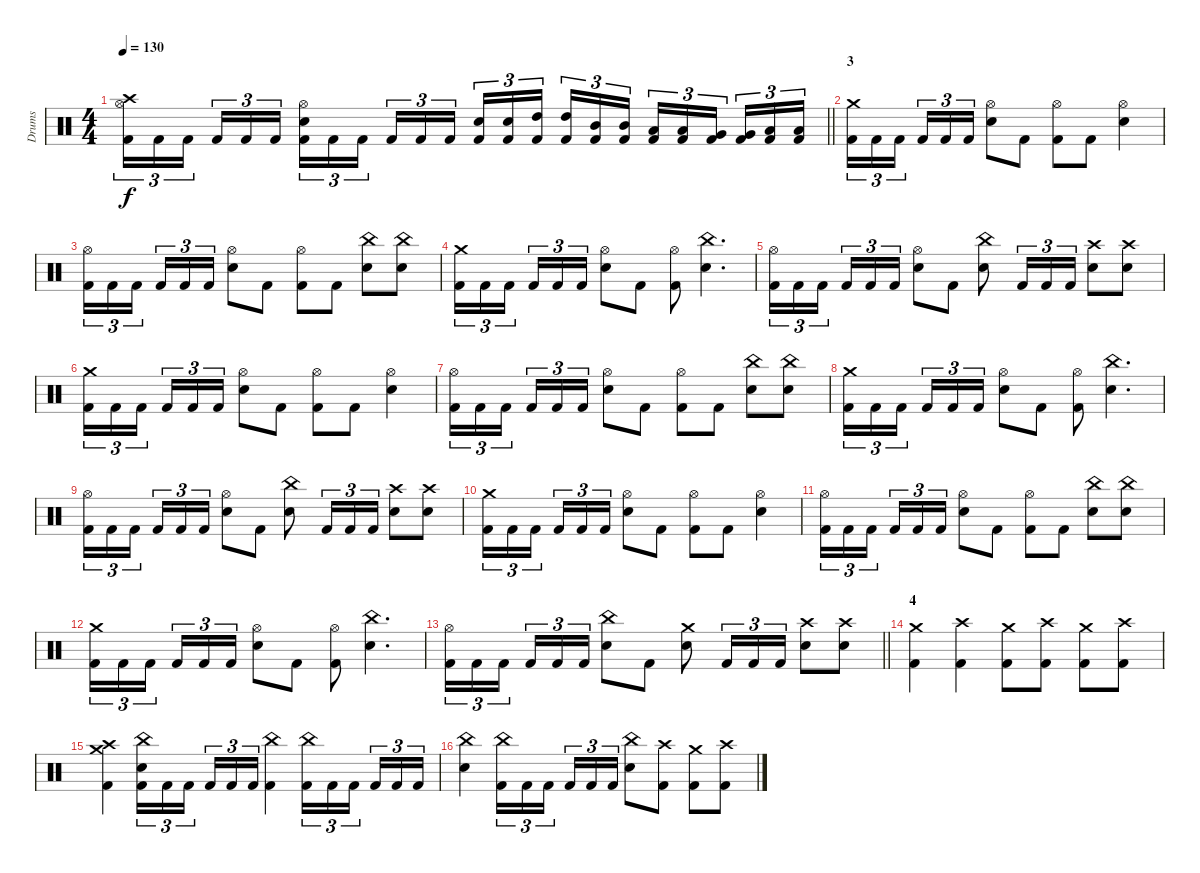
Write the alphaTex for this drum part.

\track ("Drums" "Drums") {instrument percussion}
\staff {score}
\articulation defaults
\ts (4 4)
\tempo 130
\clef neutral
\barLineRight lightlight
\ks c
("Crash high (hit)" "Hi-Hat (open)" "Kick (hit) 2").16{tu (3 2) dy f} "Kick (hit) 2".16{tu (3 2)} "Kick (hit) 2".16{tu (3 2) beam splitsecondary} "Kick (hit) 2".16{tu (3 2)} "Kick (hit) 2".16{tu (3 2)} "Kick (hit) 2".16{tu (3 2)} ("Hi-Hat (open)" "Snare (hit) 2" "Kick (hit) 2").16{tu (3 2)} "Kick (hit) 2".16{tu (3 2)} "Kick (hit) 2".16{tu (3 2) beam splitsecondary} "Kick (hit) 2".16{tu (3 2)} "Kick (hit) 2".16{tu (3 2)} "Kick (hit) 2".16{tu (3 2)} ("Snare (hit) 2" "Kick (hit) 2").16{tu (3 2)} ("Snare (hit) 2" "Kick (hit) 2").16{tu (3 2)} ("High Tom (hit)" "Kick (hit) 2").16{tu (3 2) beam splitsecondary} ("High Tom (hit)" "Kick (hit) 2").16{tu (3 2)} ("Mid Tom (hit)" "Kick (hit) 2").16{tu (3 2)} ("Mid Tom (hit)" "Kick (hit) 2").16{tu (3 2)} ("Low Tom (hit)" "Kick (hit) 2").16{tu (3 2)} ("Low Tom (hit)" "Kick (hit) 2").16{tu (3 2)} ("Very Low Tom (hit)" "Kick (hit) 2").16{tu (3 2) beam splitsecondary} ("Very Low Tom (hit)" "Kick (hit) 2").16{tu (3 2)} ("Low Floor Tom (hit)" "Kick (hit) 2").16{tu (3 2)} ("Low Floor Tom (hit)" "Kick (hit) 2").16{tu (3 2)} |
\section ("" "3")
("Crash medium (hit)" "Kick (hit) 2").16{tu (3 2)} "Kick (hit) 2".16{tu (3 2)} "Kick (hit) 2".16{tu (3 2) beam splitsecondary} "Kick (hit) 2".16{tu (3 2)} "Kick (hit) 2".16{tu (3 2)} "Kick (hit) 2".16{tu (3 2)} ("Hi-Hat (open)" "Snare (hit) 2").8 "Kick (hit) 2".8 ("Hi-Hat (open)" "Kick (hit) 2").8 "Kick (hit) 2".8 ("Hi-Hat (open)" "Snare (hit) 2").4 |
("Hi-Hat (open)" "Kick (hit) 2").16{tu (3 2)} "Kick (hit) 2".16{tu (3 2)} "Kick (hit) 2".16{tu (3 2) beam splitsecondary} "Kick (hit) 2".16{tu (3 2)} "Kick (hit) 2".16{tu (3 2)} "Kick (hit) 2".16{tu (3 2)} ("Hi-Hat (open)" "Snare (hit) 2").8 "Kick (hit) 2".8 ("Hi-Hat (open)" "Kick (hit) 2").8 "Kick (hit) 2".8 ("China (hit)" "Snare (hit) 2").8 ("China (hit)" "Snare (hit) 2").8 |
("Crash medium (hit)" "Kick (hit) 2").16{tu (3 2)} "Kick (hit) 2".16{tu (3 2)} "Kick (hit) 2".16{tu (3 2) beam splitsecondary} "Kick (hit) 2".16{tu (3 2)} "Kick (hit) 2".16{tu (3 2)} "Kick (hit) 2".16{tu (3 2)} ("Hi-Hat (open)" "Snare (hit) 2").8 "Kick (hit) 2".8 ("Hi-Hat (open)" "Kick (hit) 2").8 ("China (hit)" "Snare (hit) 2").4{d} |
("Hi-Hat (open)" "Kick (hit) 2").16{tu (3 2)} "Kick (hit) 2".16{tu (3 2)} "Kick (hit) 2".16{tu (3 2) beam splitsecondary} "Kick (hit) 2".16{tu (3 2)} "Kick (hit) 2".16{tu (3 2)} "Kick (hit) 2".16{tu (3 2)} ("Hi-Hat (open)" "Snare (hit) 2").8 "Kick (hit) 2".8 ("China (hit)" "Snare (hit) 2").8 "Kick (hit) 2".16{tu (3 2)} "Kick (hit) 2".16{tu (3 2)} "Kick (hit) 2".16{tu (3 2)} ("Crash high (hit)" "Snare (hit) 2").8 ("Crash high (hit)" "Snare (hit) 2").8 |
("Crash medium (hit)" "Kick (hit) 2").16{tu (3 2)} "Kick (hit) 2".16{tu (3 2)} "Kick (hit) 2".16{tu (3 2) beam splitsecondary} "Kick (hit) 2".16{tu (3 2)} "Kick (hit) 2".16{tu (3 2)} "Kick (hit) 2".16{tu (3 2)} ("Hi-Hat (open)" "Snare (hit) 2").8 "Kick (hit) 2".8 ("Hi-Hat (open)" "Kick (hit) 2").8 "Kick (hit) 2".8 ("Hi-Hat (open)" "Snare (hit) 2").4 |
("Hi-Hat (open)" "Kick (hit) 2").16{tu (3 2)} "Kick (hit) 2".16{tu (3 2)} "Kick (hit) 2".16{tu (3 2) beam splitsecondary} "Kick (hit) 2".16{tu (3 2)} "Kick (hit) 2".16{tu (3 2)} "Kick (hit) 2".16{tu (3 2)} ("Hi-Hat (open)" "Snare (hit) 2").8 "Kick (hit) 2".8 ("Hi-Hat (open)" "Kick (hit) 2").8 "Kick (hit) 2".8 ("China (hit)" "Snare (hit) 2").8 ("China (hit)" "Snare (hit) 2").8 |
("Crash medium (hit)" "Kick (hit) 2").16{tu (3 2)} "Kick (hit) 2".16{tu (3 2)} "Kick (hit) 2".16{tu (3 2) beam splitsecondary} "Kick (hit) 2".16{tu (3 2)} "Kick (hit) 2".16{tu (3 2)} "Kick (hit) 2".16{tu (3 2)} ("Hi-Hat (open)" "Snare (hit) 2").8 "Kick (hit) 2".8 ("Hi-Hat (open)" "Kick (hit) 2").8 ("China (hit)" "Snare (hit) 2").4{d} |
("Hi-Hat (open)" "Kick (hit) 2").16{tu (3 2)} "Kick (hit) 2".16{tu (3 2)} "Kick (hit) 2".16{tu (3 2) beam splitsecondary} "Kick (hit) 2".16{tu (3 2)} "Kick (hit) 2".16{tu (3 2)} "Kick (hit) 2".16{tu (3 2)} ("Hi-Hat (open)" "Snare (hit) 2").8 "Kick (hit) 2".8 ("China (hit)" "Snare (hit) 2").8 "Kick (hit) 2".16{tu (3 2)} "Kick (hit) 2".16{tu (3 2)} "Kick (hit) 2".16{tu (3 2)} ("Crash high (hit)" "Snare (hit) 2").8 ("Crash high (hit)" "Snare (hit) 2").8 |
("Crash medium (hit)" "Kick (hit) 2").16{tu (3 2)} "Kick (hit) 2".16{tu (3 2)} "Kick (hit) 2".16{tu (3 2) beam splitsecondary} "Kick (hit) 2".16{tu (3 2)} "Kick (hit) 2".16{tu (3 2)} "Kick (hit) 2".16{tu (3 2)} ("Hi-Hat (open)" "Snare (hit) 2").8 "Kick (hit) 2".8 ("Hi-Hat (open)" "Kick (hit) 2").8 "Kick (hit) 2".8 ("Hi-Hat (open)" "Snare (hit) 2").4 |
("Hi-Hat (open)" "Kick (hit) 2").16{tu (3 2)} "Kick (hit) 2".16{tu (3 2)} "Kick (hit) 2".16{tu (3 2) beam splitsecondary} "Kick (hit) 2".16{tu (3 2)} "Kick (hit) 2".16{tu (3 2)} "Kick (hit) 2".16{tu (3 2)} ("Hi-Hat (open)" "Snare (hit) 2").8 "Kick (hit) 2".8 ("Hi-Hat (open)" "Kick (hit) 2").8 "Kick (hit) 2".8 ("China (hit)" "Snare (hit) 2").8 ("China (hit)" "Snare (hit) 2").8 |
("Crash medium (hit)" "Kick (hit) 2").16{tu (3 2)} "Kick (hit) 2".16{tu (3 2)} "Kick (hit) 2".16{tu (3 2) beam splitsecondary} "Kick (hit) 2".16{tu (3 2)} "Kick (hit) 2".16{tu (3 2)} "Kick (hit) 2".16{tu (3 2)} ("Hi-Hat (open)" "Snare (hit) 2").8 "Kick (hit) 2".8 ("Hi-Hat (open)" "Kick (hit) 2").8 ("China (hit)" "Snare (hit) 2").4{d} |
\barLineRight lightlight
("Hi-Hat (open)" "Kick (hit) 2").16{tu (3 2)} "Kick (hit) 2".16{tu (3 2)} "Kick (hit) 2".16{tu (3 2) beam splitsecondary} "Kick (hit) 2".16{tu (3 2)} "Kick (hit) 2".16{tu (3 2)} "Kick (hit) 2".16{tu (3 2)} ("China (hit)" "Snare (hit) 2").8 "Kick (hit) 2".8 ("Crash medium (hit)" "Snare (hit) 2").8 "Kick (hit) 2".16{tu (3 2)} "Kick (hit) 2".16{tu (3 2)} "Kick (hit) 2".16{tu (3 2)} ("Crash high (hit)" "Snare (hit) 2").8 ("Crash high (hit)" "Snare (hit) 2").8 |
\section ("" "4")
("Crash medium (hit)" "Kick (hit) 2").4 ("Crash high (hit)" "Kick (hit) 2").4 ("Crash medium (hit)" "Kick (hit) 2").8 ("Crash high (hit)" "Kick (hit) 2").8 ("Crash medium (hit)" "Kick (hit) 2").8 ("Crash high (hit)" "Kick (hit) 2").8 |
("Crash medium (hit)" "Crash high (hit)" "Kick (hit) 2").4 ("China (hit)" "Snare (hit) 2" "Kick (hit) 2").16{tu (3 2)} "Kick (hit) 2".16{tu (3 2)} "Kick (hit) 2".16{tu (3 2) beam splitsecondary} "Kick (hit) 2".16{tu (3 2)} "Kick (hit) 2".16{tu (3 2)} "Kick (hit) 2".16{tu (3 2)} ("China (hit)" "Kick (hit) 2").4 ("China (hit)" "Kick (hit) 2").16{tu (3 2)} "Kick (hit) 2".16{tu (3 2)} "Kick (hit) 2".16{tu (3 2) beam splitsecondary} "Kick (hit) 2".16{tu (3 2)} "Kick (hit) 2".16{tu (3 2)} "Kick (hit) 2".16{tu (3 2)} |
("China (hit)" "Snare (hit) 2").4 ("China (hit)" "Kick (hit) 2").16{tu (3 2)} "Kick (hit) 2".16{tu (3 2)} "Kick (hit) 2".16{tu (3 2) beam splitsecondary} "Kick (hit) 2".16{tu (3 2)} "Kick (hit) 2".16{tu (3 2)} "Kick (hit) 2".16{tu (3 2)} ("China (hit)" "Snare (hit) 2").8 ("Crash high (hit)" "Kick (hit) 2").8 ("Crash medium (hit)" "Kick (hit) 2").8 ("Crash high (hit)" "Kick (hit) 2").8
